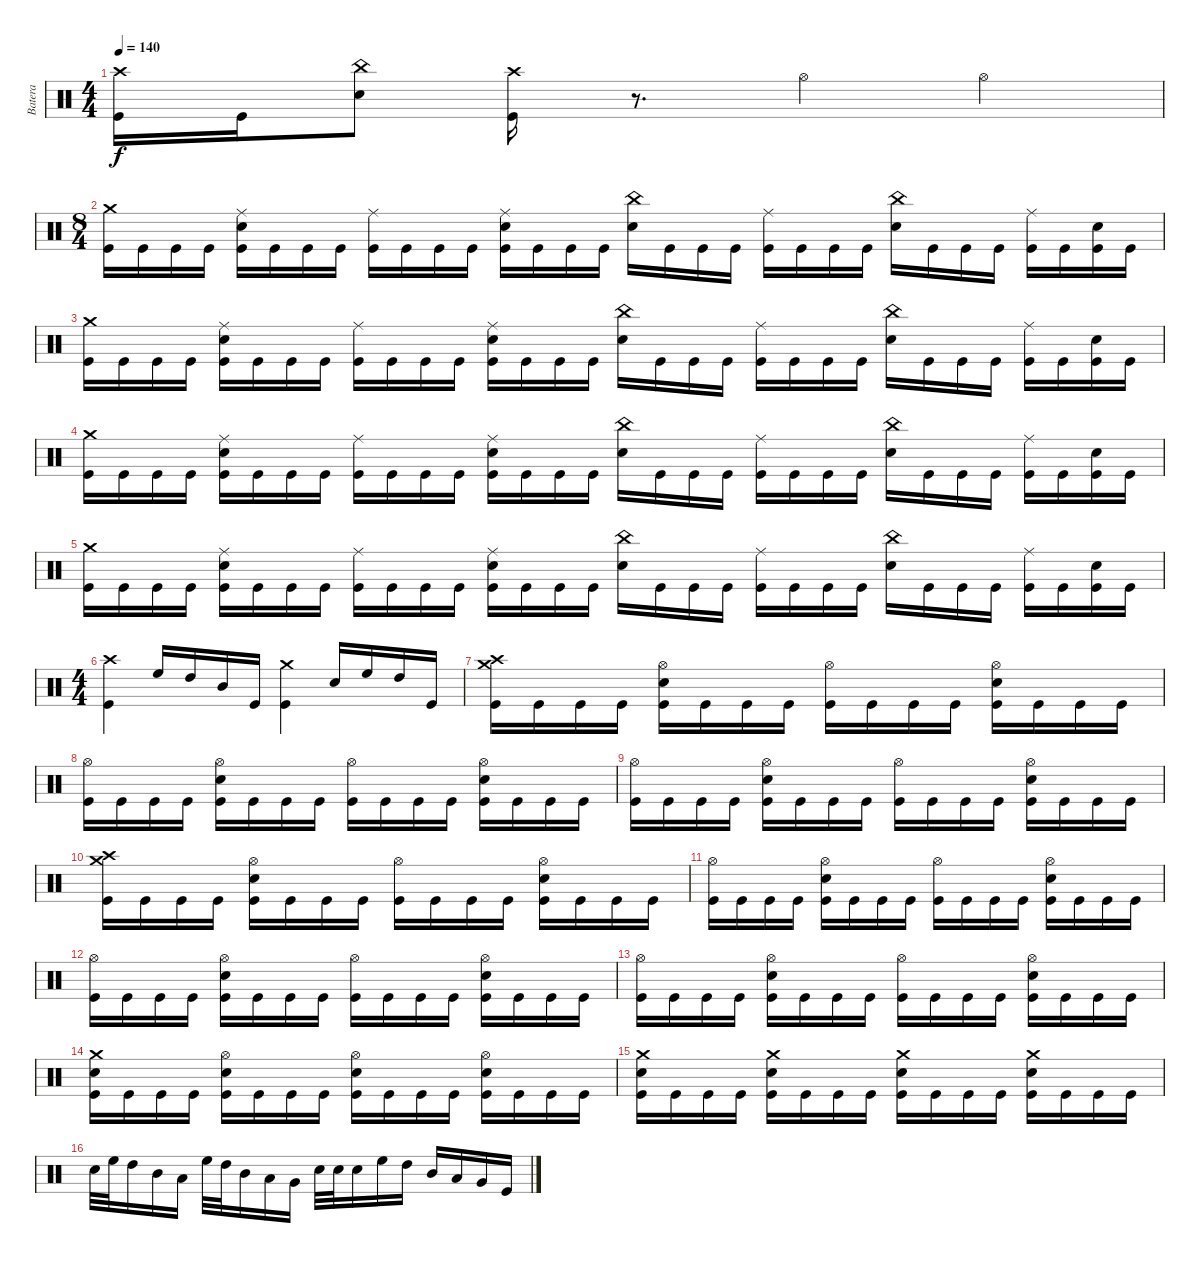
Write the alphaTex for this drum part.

\track ("Batera" "Batera") {instrument percussion}
\staff {score}
\articulation defaults
\ts (4 4)
\tempo 140
\clef neutral
\ks c
("Crash high (hit)" "Kick (hit)").16{dy f} "Kick (hit)".16 ("China (hit)" "Snare (hit) 2").8 ("Crash high (hit)" "Kick (hit)").16 r.8{d} "Hi-Hat (open)".4 "Hi-Hat (open)".4 |
\ts (8 4)
("Crash medium (hit)" "Kick (hit)").16 "Kick (hit)".16 "Kick (hit)".16 "Kick (hit)".16 ("Ride (middle)" "Snare (hit) 2" "Kick (hit)").16 "Kick (hit)".16 "Kick (hit)".16 "Kick (hit)".16 ("Ride (middle)" "Kick (hit)").16 "Kick (hit)".16 "Kick (hit)".16 "Kick (hit)".16 ("Ride (middle)" "Snare (hit) 2" "Kick (hit)").16 "Kick (hit)".16 "Kick (hit)".16 "Kick (hit)".16 ("China (hit)" "Snare (hit) 2").16 "Kick (hit)".16 "Kick (hit)".16 "Kick (hit)".16 ("Ride (middle)" "Kick (hit)").16 "Kick (hit)".16 "Kick (hit)".16 "Kick (hit)".16 ("China (hit)" "Snare (hit) 2").16 "Kick (hit)".16 "Kick (hit)".16 "Kick (hit)".16 ("Ride (middle)" "Kick (hit)").16 "Kick (hit)".16 ("Snare (hit) 2" "Kick (hit)").16 "Kick (hit)".16 |
("Crash medium (hit)" "Kick (hit)").16 "Kick (hit)".16 "Kick (hit)".16 "Kick (hit)".16 ("Ride (middle)" "Snare (hit) 2" "Kick (hit)").16 "Kick (hit)".16 "Kick (hit)".16 "Kick (hit)".16 ("Ride (middle)" "Kick (hit)").16 "Kick (hit)".16 "Kick (hit)".16 "Kick (hit)".16 ("Ride (middle)" "Snare (hit) 2" "Kick (hit)").16 "Kick (hit)".16 "Kick (hit)".16 "Kick (hit)".16 ("China (hit)" "Snare (hit) 2").16 "Kick (hit)".16 "Kick (hit)".16 "Kick (hit)".16 ("Ride (middle)" "Kick (hit)").16 "Kick (hit)".16 "Kick (hit)".16 "Kick (hit)".16 ("China (hit)" "Snare (hit) 2").16 "Kick (hit)".16 "Kick (hit)".16 "Kick (hit)".16 ("Ride (middle)" "Kick (hit)").16 "Kick (hit)".16 ("Snare (hit) 2" "Kick (hit)").16 "Kick (hit)".16 |
("Crash medium (hit)" "Kick (hit)").16 "Kick (hit)".16 "Kick (hit)".16 "Kick (hit)".16 ("Ride (middle)" "Snare (hit) 2" "Kick (hit)").16 "Kick (hit)".16 "Kick (hit)".16 "Kick (hit)".16 ("Ride (middle)" "Kick (hit)").16 "Kick (hit)".16 "Kick (hit)".16 "Kick (hit)".16 ("Ride (middle)" "Snare (hit) 2" "Kick (hit)").16 "Kick (hit)".16 "Kick (hit)".16 "Kick (hit)".16 ("China (hit)" "Snare (hit) 2").16 "Kick (hit)".16 "Kick (hit)".16 "Kick (hit)".16 ("Ride (middle)" "Kick (hit)").16 "Kick (hit)".16 "Kick (hit)".16 "Kick (hit)".16 ("China (hit)" "Snare (hit) 2").16 "Kick (hit)".16 "Kick (hit)".16 "Kick (hit)".16 ("Ride (middle)" "Kick (hit)").16 "Kick (hit)".16 ("Snare (hit) 2" "Kick (hit)").16 "Kick (hit)".16 |
("Crash medium (hit)" "Kick (hit)").16 "Kick (hit)".16 "Kick (hit)".16 "Kick (hit)".16 ("Ride (middle)" "Snare (hit) 2" "Kick (hit)").16 "Kick (hit)".16 "Kick (hit)".16 "Kick (hit)".16 ("Ride (middle)" "Kick (hit)").16 "Kick (hit)".16 "Kick (hit)".16 "Kick (hit)".16 ("Ride (middle)" "Snare (hit) 2" "Kick (hit)").16 "Kick (hit)".16 "Kick (hit)".16 "Kick (hit)".16 ("China (hit)" "Snare (hit) 2").16 "Kick (hit)".16 "Kick (hit)".16 "Kick (hit)".16 ("Ride (middle)" "Kick (hit)").16 "Kick (hit)".16 "Kick (hit)".16 "Kick (hit)".16 ("China (hit)" "Snare (hit) 2").16 "Kick (hit)".16 "Kick (hit)".16 "Kick (hit)".16 ("Ride (middle)" "Kick (hit)").16 "Kick (hit)".16 ("Snare (hit) 2" "Kick (hit)").16 "Kick (hit)".16 |
\ts (4 4)
("Crash high (hit)" "Kick (hit)").4 "High Floor Tom (hit)".16 "High Tom (hit)".16 "Mid Tom (hit)".16 "Kick (hit)".16 ("Crash medium (hit)" "Kick (hit)").4 "Snare (hit) 2".16 "High Floor Tom (hit)".16 "High Tom (hit)".16 "Kick (hit)".16 |
("Crash high (hit)" "Crash medium (hit)" "Kick (hit)").16 "Kick (hit)".16 "Kick (hit)".16 "Kick (hit)".16 ("Hi-Hat (open)" "Snare (hit) 2" "Kick (hit)").16 "Kick (hit)".16 "Kick (hit)".16 "Kick (hit)".16 ("Hi-Hat (open)" "Kick (hit)").16 "Kick (hit)".16 "Kick (hit)".16 "Kick (hit)".16 ("Hi-Hat (open)" "Snare (hit) 2" "Kick (hit)").16 "Kick (hit)".16 "Kick (hit)".16 "Kick (hit)".16 |
("Hi-Hat (open)" "Kick (hit)").16 "Kick (hit)".16 "Kick (hit)".16 "Kick (hit)".16 ("Hi-Hat (open)" "Snare (hit) 2" "Kick (hit)").16 "Kick (hit)".16 "Kick (hit)".16 "Kick (hit)".16 ("Hi-Hat (open)" "Kick (hit)").16 "Kick (hit)".16 "Kick (hit)".16 "Kick (hit)".16 ("Hi-Hat (open)" "Snare (hit) 2" "Kick (hit)").16 "Kick (hit)".16 "Kick (hit)".16 "Kick (hit)".16 |
("Hi-Hat (open)" "Kick (hit)").16 "Kick (hit)".16 "Kick (hit)".16 "Kick (hit)".16 ("Hi-Hat (open)" "Snare (hit) 2" "Kick (hit)").16 "Kick (hit)".16 "Kick (hit)".16 "Kick (hit)".16 ("Hi-Hat (open)" "Kick (hit)").16 "Kick (hit)".16 "Kick (hit)".16 "Kick (hit)".16 ("Hi-Hat (open)" "Snare (hit) 2" "Kick (hit)").16 "Kick (hit)".16 "Kick (hit)".16 "Kick (hit)".16 |
("Crash high (hit)" "Crash medium (hit)" "Kick (hit)").16 "Kick (hit)".16 "Kick (hit)".16 "Kick (hit)".16 ("Hi-Hat (open)" "Snare (hit) 2" "Kick (hit)").16 "Kick (hit)".16 "Kick (hit)".16 "Kick (hit)".16 ("Hi-Hat (open)" "Kick (hit)").16 "Kick (hit)".16 "Kick (hit)".16 "Kick (hit)".16 ("Hi-Hat (open)" "Snare (hit) 2" "Kick (hit)").16 "Kick (hit)".16 "Kick (hit)".16 "Kick (hit)".16 |
("Hi-Hat (open)" "Kick (hit)").16 "Kick (hit)".16 "Kick (hit)".16 "Kick (hit)".16 ("Hi-Hat (open)" "Snare (hit) 2" "Kick (hit)").16 "Kick (hit)".16 "Kick (hit)".16 "Kick (hit)".16 ("Hi-Hat (open)" "Kick (hit)").16 "Kick (hit)".16 "Kick (hit)".16 "Kick (hit)".16 ("Hi-Hat (open)" "Snare (hit) 2" "Kick (hit)").16 "Kick (hit)".16 "Kick (hit)".16 "Kick (hit)".16 |
("Hi-Hat (open)" "Kick (hit)").16 "Kick (hit)".16 "Kick (hit)".16 "Kick (hit)".16 ("Hi-Hat (open)" "Snare (hit) 2" "Kick (hit)").16 "Kick (hit)".16 "Kick (hit)".16 "Kick (hit)".16 ("Hi-Hat (open)" "Kick (hit)").16 "Kick (hit)".16 "Kick (hit)".16 "Kick (hit)".16 ("Hi-Hat (open)" "Snare (hit) 2" "Kick (hit)").16 "Kick (hit)".16 "Kick (hit)".16 "Kick (hit)".16 |
("Hi-Hat (open)" "Kick (hit)").16 "Kick (hit)".16 "Kick (hit)".16 "Kick (hit)".16 ("Hi-Hat (open)" "Snare (hit) 2" "Kick (hit)").16 "Kick (hit)".16 "Kick (hit)".16 "Kick (hit)".16 ("Hi-Hat (open)" "Kick (hit)").16 "Kick (hit)".16 "Kick (hit)".16 "Kick (hit)".16 ("Hi-Hat (open)" "Snare (hit) 2" "Kick (hit)").16 "Kick (hit)".16 "Kick (hit)".16 "Kick (hit)".16 |
("Crash medium (hit)" "Snare (hit) 2" "Kick (hit)").16 "Kick (hit)".16 "Kick (hit)".16 "Kick (hit)".16 ("Hi-Hat (open)" "Snare (hit) 2" "Kick (hit)").16 "Kick (hit)".16 "Kick (hit)".16 "Kick (hit)".16 ("Hi-Hat (open)" "Snare (hit) 2" "Kick (hit)").16 "Kick (hit)".16 "Kick (hit)".16 "Kick (hit)".16 ("Hi-Hat (open)" "Snare (hit) 2" "Kick (hit)").16 "Kick (hit)".16 "Kick (hit)".16 "Kick (hit)".16 |
("Crash medium (hit)" "Snare (hit) 2" "Kick (hit)").16 "Kick (hit)".16 "Kick (hit)".16 "Kick (hit)".16 ("Crash medium (hit)" "Snare (hit) 2" "Kick (hit)").16 "Kick (hit)".16 "Kick (hit)".16 "Kick (hit)".16 ("Crash medium (hit)" "Snare (hit) 2" "Kick (hit)").16 "Kick (hit)".16 "Kick (hit)".16 "Kick (hit)".16 ("Crash medium (hit)" "Snare (hit) 2" "Kick (hit)").16 "Kick (hit)".16 "Kick (hit)".16 "Kick (hit)".16 |
"Snare (hit) 2".32 "High Floor Tom (hit)".32 "High Tom (hit)".16 "Mid Tom (hit)".16 "Low Tom (hit)".16 "High Floor Tom (hit)".32 "High Tom (hit)".32 "Mid Tom (hit)".16 "Low Tom (hit)".16 "Very Low Tom (hit)".16 "Snare (hit) 2".32 "Snare (hit) 2".32 "Snare (hit) 2".16 "High Floor Tom (hit)".16 "High Tom (hit)".16 "Mid Tom (hit)".16 "Low Tom (hit)".16 "Very Low Tom (hit)".16 "Kick (hit)".16
